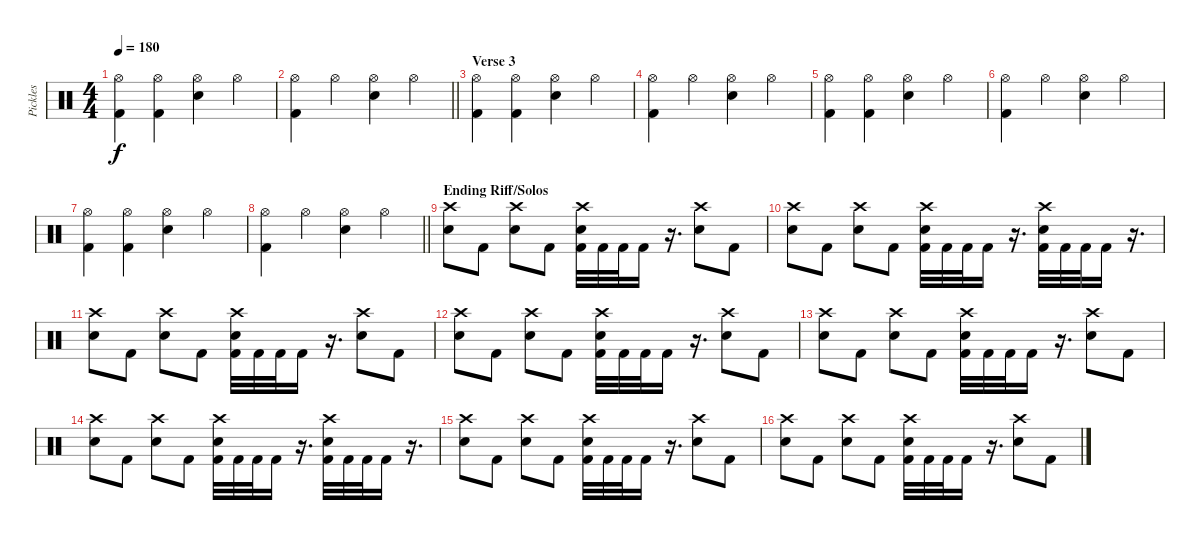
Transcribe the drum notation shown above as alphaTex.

\track ("Pickles" "Pickles") {instrument percussion}
\staff {score}
\articulation defaults
\ts (4 4)
\tempo 180
\clef neutral
\ks c
("Hi-Hat (open)" "Kick (hit) 2").4{dy f} ("Hi-Hat (open)" "Kick (hit) 2").4 ("Hi-Hat (open)" "Snare (hit) 2").4 "Hi-Hat (open)".4 |
\barLineRight lightlight
("Hi-Hat (open)" "Kick (hit) 2").4 "Hi-Hat (open)".4 ("Hi-Hat (open)" "Snare (hit) 2").4 "Hi-Hat (open)".4 |
\section ("" "Verse 3")
("Hi-Hat (open)" "Kick (hit) 2").4 ("Hi-Hat (open)" "Kick (hit) 2").4 ("Hi-Hat (open)" "Snare (hit) 2").4 "Hi-Hat (open)".4 |
("Hi-Hat (open)" "Kick (hit) 2").4 "Hi-Hat (open)".4 ("Hi-Hat (open)" "Snare (hit) 2").4 "Hi-Hat (open)".4 |
("Hi-Hat (open)" "Kick (hit) 2").4 ("Hi-Hat (open)" "Kick (hit) 2").4 ("Hi-Hat (open)" "Snare (hit) 2").4 "Hi-Hat (open)".4 |
("Hi-Hat (open)" "Kick (hit) 2").4 "Hi-Hat (open)".4 ("Hi-Hat (open)" "Snare (hit) 2").4 "Hi-Hat (open)".4 |
("Hi-Hat (open)" "Kick (hit) 2").4 ("Hi-Hat (open)" "Kick (hit) 2").4 ("Hi-Hat (open)" "Snare (hit) 2").4 "Hi-Hat (open)".4 |
\barLineRight lightlight
("Hi-Hat (open)" "Kick (hit) 2").4 "Hi-Hat (open)".4 ("Hi-Hat (open)" "Snare (hit) 2").4 "Hi-Hat (open)".4 |
\section ("" "Ending Riff/Solos")
("Crash high (hit)" "Snare (hit) 2").8 "Kick (hit) 2".8 ("Crash high (hit)" "Snare (hit) 2").8 "Kick (hit) 2".8 ("Crash high (hit)" "Snare (hit) 2" "Kick (hit) 2").32 "Kick (hit) 2".32 "Kick (hit) 2".32 "Kick (hit) 2".16 r.16{d} ("Crash high (hit)" "Snare (hit) 2").8 "Kick (hit) 2".8 |
("Crash high (hit)" "Snare (hit) 2").8 "Kick (hit) 2".8 ("Crash high (hit)" "Snare (hit) 2").8 "Kick (hit) 2".8 ("Crash high (hit)" "Snare (hit) 2" "Kick (hit) 2").32 "Kick (hit) 2".32 "Kick (hit) 2".32 "Kick (hit) 2".16 r.16{d} ("Crash high (hit)" "Snare (hit) 2" "Kick (hit) 2").32 "Kick (hit) 2".32 "Kick (hit) 2".32 "Kick (hit) 2".16 r.16{d} |
("Crash high (hit)" "Snare (hit) 2").8 "Kick (hit) 2".8 ("Crash high (hit)" "Snare (hit) 2").8 "Kick (hit) 2".8 ("Crash high (hit)" "Snare (hit) 2" "Kick (hit) 2").32 "Kick (hit) 2".32 "Kick (hit) 2".32 "Kick (hit) 2".16 r.16{d} ("Crash high (hit)" "Snare (hit) 2").8 "Kick (hit) 2".8 |
("Crash high (hit)" "Snare (hit) 2").8 "Kick (hit) 2".8 ("Crash high (hit)" "Snare (hit) 2").8 "Kick (hit) 2".8 ("Crash high (hit)" "Snare (hit) 2" "Kick (hit) 2").32 "Kick (hit) 2".32 "Kick (hit) 2".32 "Kick (hit) 2".16 r.16{d} ("Crash high (hit)" "Snare (hit) 2").8 "Kick (hit) 2".8 |
("Crash high (hit)" "Snare (hit) 2").8 "Kick (hit) 2".8 ("Crash high (hit)" "Snare (hit) 2").8 "Kick (hit) 2".8 ("Crash high (hit)" "Snare (hit) 2" "Kick (hit) 2").32 "Kick (hit) 2".32 "Kick (hit) 2".32 "Kick (hit) 2".16 r.16{d} ("Crash high (hit)" "Snare (hit) 2").8 "Kick (hit) 2".8 |
("Crash high (hit)" "Snare (hit) 2").8 "Kick (hit) 2".8 ("Crash high (hit)" "Snare (hit) 2").8 "Kick (hit) 2".8 ("Crash high (hit)" "Snare (hit) 2" "Kick (hit) 2").32 "Kick (hit) 2".32 "Kick (hit) 2".32 "Kick (hit) 2".16 r.16{d} ("Crash high (hit)" "Snare (hit) 2" "Kick (hit) 2").32 "Kick (hit) 2".32 "Kick (hit) 2".32 "Kick (hit) 2".16 r.16{d} |
("Crash high (hit)" "Snare (hit) 2").8 "Kick (hit) 2".8 ("Crash high (hit)" "Snare (hit) 2").8 "Kick (hit) 2".8 ("Crash high (hit)" "Snare (hit) 2" "Kick (hit) 2").32 "Kick (hit) 2".32 "Kick (hit) 2".32 "Kick (hit) 2".16 r.16{d} ("Crash high (hit)" "Snare (hit) 2").8 "Kick (hit) 2".8 |
("Crash high (hit)" "Snare (hit) 2").8 "Kick (hit) 2".8 ("Crash high (hit)" "Snare (hit) 2").8 "Kick (hit) 2".8 ("Crash high (hit)" "Snare (hit) 2" "Kick (hit) 2").32 "Kick (hit) 2".32 "Kick (hit) 2".32 "Kick (hit) 2".16 r.16{d} ("Crash high (hit)" "Snare (hit) 2").8 "Kick (hit) 2".8
